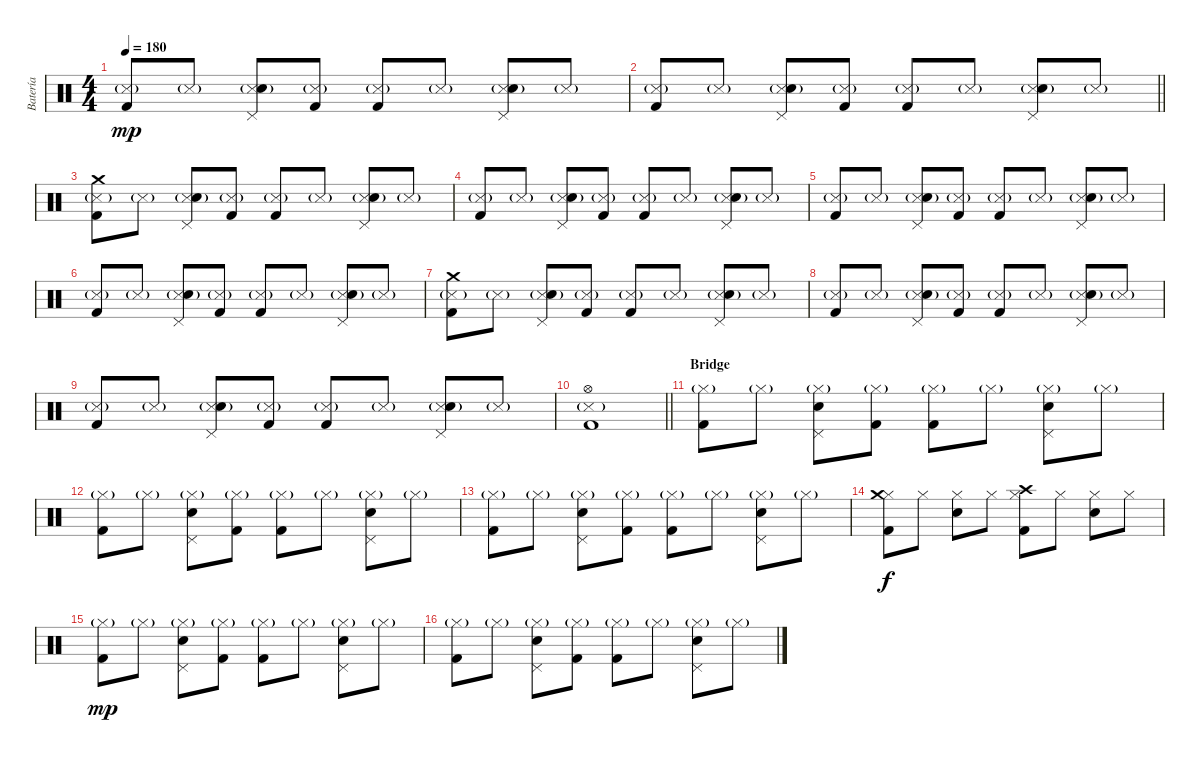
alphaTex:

\track ("Batería" "Batería") {instrument percussion}
\staff {score}
\articulation defaults
\ts (4 4)
\tempo 180
\clef neutral
\ks c
("Snare (side stick) 3"{g} "Kick (hit) 2").8{dy mp} "Snare (side stick) 3"{g}.8 ("Snare (side stick) 3"{g} "Electric Snare (hit)" "Pedal Hi-Hat (hit)").8 ("Snare (side stick) 3"{g} "Kick (hit) 2").8 ("Snare (side stick) 3"{g} "Kick (hit) 2").8 "Snare (side stick) 3"{g}.8 ("Snare (side stick) 3"{g} "Electric Snare (hit)" "Pedal Hi-Hat (hit)").8 "Snare (side stick) 3"{g}.8 |
\barLineRight lightlight
("Snare (side stick) 3"{g} "Kick (hit) 2").8 "Snare (side stick) 3"{g}.8 ("Snare (side stick) 3"{g} "Electric Snare (hit)" "Pedal Hi-Hat (hit)").8 ("Snare (side stick) 3"{g} "Kick (hit) 2").8 ("Snare (side stick) 3"{g} "Kick (hit) 2").8 "Snare (side stick) 3"{g}.8 ("Snare (side stick) 3"{g} "Electric Snare (hit)" "Pedal Hi-Hat (hit)").8 "Snare (side stick) 3"{g}.8 |
\section ("" "")
("Snare (side stick) 3"{g} "Kick (hit) 2" "Crash medium (hit)").8 "Snare (side stick) 3"{g}.8 ("Snare (side stick) 3"{g} "Electric Snare (hit)" "Pedal Hi-Hat (hit)").8 ("Snare (side stick) 3"{g} "Kick (hit) 2").8 ("Snare (side stick) 3"{g} "Kick (hit) 2").8 "Snare (side stick) 3"{g}.8 ("Snare (side stick) 3"{g} "Electric Snare (hit)" "Pedal Hi-Hat (hit)").8 "Snare (side stick) 3"{g}.8 |
("Snare (side stick) 3"{g} "Kick (hit) 2").8 "Snare (side stick) 3"{g}.8 ("Snare (side stick) 3"{g} "Electric Snare (hit)" "Pedal Hi-Hat (hit)").8 ("Snare (side stick) 3"{g} "Kick (hit) 2").8 ("Snare (side stick) 3"{g} "Kick (hit) 2").8 "Snare (side stick) 3"{g}.8 ("Snare (side stick) 3"{g} "Electric Snare (hit)" "Pedal Hi-Hat (hit)").8 "Snare (side stick) 3"{g}.8 |
("Snare (side stick) 3"{g} "Kick (hit) 2").8 "Snare (side stick) 3"{g}.8 ("Snare (side stick) 3"{g} "Electric Snare (hit)" "Pedal Hi-Hat (hit)").8 ("Snare (side stick) 3"{g} "Kick (hit) 2").8 ("Snare (side stick) 3"{g} "Kick (hit) 2").8 "Snare (side stick) 3"{g}.8 ("Snare (side stick) 3"{g} "Electric Snare (hit)" "Pedal Hi-Hat (hit)").8 "Snare (side stick) 3"{g}.8 |
("Snare (side stick) 3"{g} "Kick (hit) 2").8 "Snare (side stick) 3"{g}.8 ("Snare (side stick) 3"{g} "Electric Snare (hit)" "Pedal Hi-Hat (hit)").8 ("Snare (side stick) 3"{g} "Kick (hit) 2").8 ("Snare (side stick) 3"{g} "Kick (hit) 2").8 "Snare (side stick) 3"{g}.8 ("Snare (side stick) 3"{g} "Electric Snare (hit)" "Pedal Hi-Hat (hit)").8 "Snare (side stick) 3"{g}.8 |
("Snare (side stick) 3"{g} "Kick (hit) 2" "Crash medium (hit)").8 "Snare (side stick) 3"{g}.8 ("Snare (side stick) 3"{g} "Electric Snare (hit)" "Pedal Hi-Hat (hit)").8 ("Snare (side stick) 3"{g} "Kick (hit) 2").8 ("Snare (side stick) 3"{g} "Kick (hit) 2").8 "Snare (side stick) 3"{g}.8 ("Snare (side stick) 3"{g} "Electric Snare (hit)" "Pedal Hi-Hat (hit)").8 "Snare (side stick) 3"{g}.8 |
("Snare (side stick) 3"{g} "Kick (hit) 2").8 "Snare (side stick) 3"{g}.8 ("Snare (side stick) 3"{g} "Electric Snare (hit)" "Pedal Hi-Hat (hit)").8 ("Snare (side stick) 3"{g} "Kick (hit) 2").8 ("Snare (side stick) 3"{g} "Kick (hit) 2").8 "Snare (side stick) 3"{g}.8 ("Snare (side stick) 3"{g} "Electric Snare (hit)" "Pedal Hi-Hat (hit)").8 "Snare (side stick) 3"{g}.8 |
("Snare (side stick) 3"{g} "Kick (hit) 2").8 "Snare (side stick) 3"{g}.8 ("Snare (side stick) 3"{g} "Electric Snare (hit)" "Pedal Hi-Hat (hit)").8 ("Snare (side stick) 3"{g} "Kick (hit) 2").8 ("Snare (side stick) 3"{g} "Kick (hit) 2").8 "Snare (side stick) 3"{g}.8 ("Snare (side stick) 3"{g} "Electric Snare (hit)" "Pedal Hi-Hat (hit)").8 "Snare (side stick) 3"{g}.8 |
\barLineRight lightlight
("Snare (side stick) 3"{g} "Kick (hit) 2" "Hi-Hat (open)").1 |
\section ("" "Bridge")
("Hi-Hat (closed)"{g} "Kick (hit) 2").8 "Hi-Hat (closed)"{g}.8 ("Hi-Hat (closed)"{g} "Electric Snare (hit)" "Pedal Hi-Hat (hit)").8 ("Hi-Hat (closed)"{g} "Kick (hit) 2").8 ("Hi-Hat (closed)"{g} "Kick (hit) 2").8 "Hi-Hat (closed)"{g}.8 ("Hi-Hat (closed)"{g} "Electric Snare (hit)" "Pedal Hi-Hat (hit)").8 "Hi-Hat (closed)"{g}.8 |
("Hi-Hat (closed)"{g} "Kick (hit) 2").8 "Hi-Hat (closed)"{g}.8 ("Hi-Hat (closed)"{g} "Electric Snare (hit)" "Pedal Hi-Hat (hit)").8 ("Hi-Hat (closed)"{g} "Kick (hit) 2").8 ("Hi-Hat (closed)"{g} "Kick (hit) 2").8 "Hi-Hat (closed)"{g}.8 ("Hi-Hat (closed)"{g} "Electric Snare (hit)" "Pedal Hi-Hat (hit)").8 "Hi-Hat (closed)"{g}.8 |
("Hi-Hat (closed)"{g} "Kick (hit) 2").8 "Hi-Hat (closed)"{g}.8 ("Hi-Hat (closed)"{g} "Electric Snare (hit)" "Pedal Hi-Hat (hit)").8 ("Hi-Hat (closed)"{g} "Kick (hit) 2").8 ("Hi-Hat (closed)"{g} "Kick (hit) 2").8 "Hi-Hat (closed)"{g}.8 ("Hi-Hat (closed)"{g} "Electric Snare (hit)" "Pedal Hi-Hat (hit)").8 "Hi-Hat (closed)"{g}.8 |
("Hi-Hat (closed)" "Kick (hit) 2" "Crash medium (hit)").8{dy f} "Hi-Hat (closed)".8 ("Hi-Hat (closed)" "Electric Snare (hit)").8 "Hi-Hat (closed)".8 ("Hi-Hat (closed)" "Crash high (hit)" "Kick (hit) 2").8 "Hi-Hat (closed)".8 ("Hi-Hat (closed)" "Electric Snare (hit)").8 "Hi-Hat (closed)".8 |
("Hi-Hat (closed)"{g} "Kick (hit) 2").8{dy mp} "Hi-Hat (closed)"{g}.8 ("Hi-Hat (closed)"{g} "Electric Snare (hit)" "Pedal Hi-Hat (hit)").8 ("Hi-Hat (closed)"{g} "Kick (hit) 2").8 ("Hi-Hat (closed)"{g} "Kick (hit) 2").8 "Hi-Hat (closed)"{g}.8 ("Hi-Hat (closed)"{g} "Electric Snare (hit)" "Pedal Hi-Hat (hit)").8 "Hi-Hat (closed)"{g}.8 |
("Hi-Hat (closed)"{g} "Kick (hit) 2").8 "Hi-Hat (closed)"{g}.8 ("Hi-Hat (closed)"{g} "Electric Snare (hit)" "Pedal Hi-Hat (hit)").8 ("Hi-Hat (closed)"{g} "Kick (hit) 2").8 ("Hi-Hat (closed)"{g} "Kick (hit) 2").8 "Hi-Hat (closed)"{g}.8 ("Hi-Hat (closed)"{g} "Electric Snare (hit)" "Pedal Hi-Hat (hit)").8 "Hi-Hat (closed)"{g}.8
